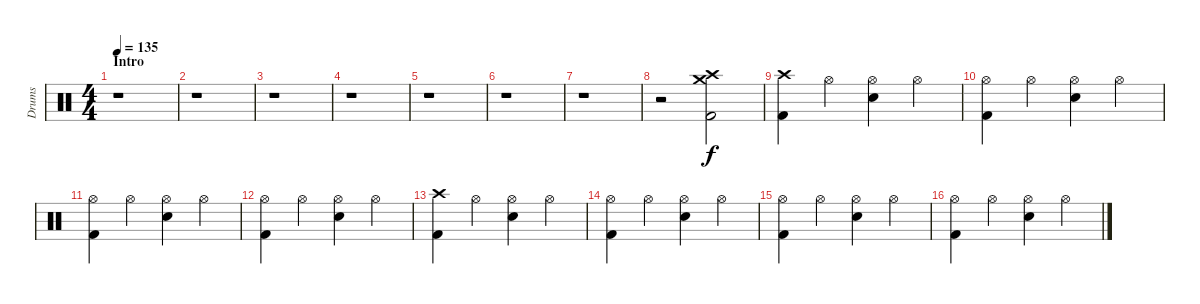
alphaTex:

\track ("Drums" "Drums") {instrument percussion}
\staff {score}
\articulation defaults
\ts (4 4)
\section ("" "Intro")
\tempo 135
\clef neutral
\ks c
r.1{dy f} |
r.1 |
r.1 |
r.1 |
r.1 |
r.1 |
r.1 |
r.2 ("Crash high (hit)" "Crash medium (hit)" "Kick (hit) 2").2 |
("Crash high (hit)" "Kick (hit) 2").4 "Hi-Hat (open)".4 ("Hi-Hat (open)" "Electric Snare (hit)").4 "Hi-Hat (open)".4 |
("Hi-Hat (open)" "Kick (hit) 2").4 "Hi-Hat (open)".4 ("Hi-Hat (open)" "Electric Snare (hit)").4 "Hi-Hat (open)".4 |
("Hi-Hat (open)" "Kick (hit) 2").4 "Hi-Hat (open)".4 ("Hi-Hat (open)" "Electric Snare (hit)").4 "Hi-Hat (open)".4 |
("Hi-Hat (open)" "Kick (hit) 2").4 "Hi-Hat (open)".4 ("Hi-Hat (open)" "Electric Snare (hit)").4 "Hi-Hat (open)".4 |
("Crash high (hit)" "Kick (hit) 2").4 "Hi-Hat (open)".4 ("Hi-Hat (open)" "Electric Snare (hit)").4 "Hi-Hat (open)".4 |
("Hi-Hat (open)" "Kick (hit) 2").4 "Hi-Hat (open)".4 ("Hi-Hat (open)" "Electric Snare (hit)").4 "Hi-Hat (open)".4 |
("Hi-Hat (open)" "Kick (hit) 2").4 "Hi-Hat (open)".4 ("Hi-Hat (open)" "Electric Snare (hit)").4 "Hi-Hat (open)".4 |
("Hi-Hat (open)" "Kick (hit) 2").4 "Hi-Hat (open)".4 ("Hi-Hat (open)" "Electric Snare (hit)").4 "Hi-Hat (open)".4
